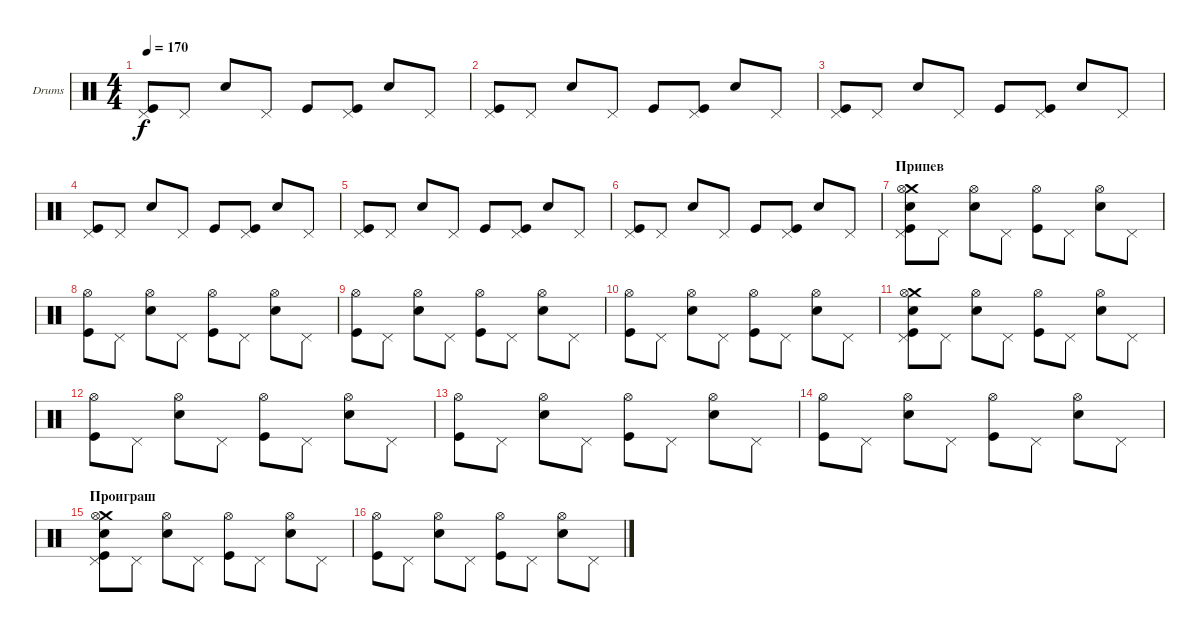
\defaultSystemsLayout 4
\bracketExtendMode groupsimilarinstruments
\firstSystemTrackNameOrientation horizontal
\otherSystemsTrackNameOrientation horizontal
\track ("Е. Кулаков" "Drums") {instrument percussion}
\staff {score}
\articulation defaults
\ts (4 4)
\tempo 170
\clef neutral
\ks c
("Kick (hit)" "Pedal Hi-Hat (hit)").8{dy f} "Pedal Hi-Hat (hit)".8 "Snare (hit) 2".8 "Pedal Hi-Hat (hit)".8 "Kick (hit)".8 ("Kick (hit)" "Pedal Hi-Hat (hit)").8 "Snare (hit) 2".8 "Pedal Hi-Hat (hit)".8 |
("Kick (hit)" "Pedal Hi-Hat (hit)").8 "Pedal Hi-Hat (hit)".8 "Snare (hit) 2".8 "Pedal Hi-Hat (hit)".8 "Kick (hit)".8 ("Kick (hit)" "Pedal Hi-Hat (hit)").8 "Snare (hit) 2".8 "Pedal Hi-Hat (hit)".8 |
("Kick (hit)" "Pedal Hi-Hat (hit)").8 "Pedal Hi-Hat (hit)".8 "Snare (hit) 2".8 "Pedal Hi-Hat (hit)".8 "Kick (hit)".8 ("Kick (hit)" "Pedal Hi-Hat (hit)").8 "Snare (hit) 2".8 "Pedal Hi-Hat (hit)".8 |
("Kick (hit)" "Pedal Hi-Hat (hit)").8 "Pedal Hi-Hat (hit)".8 "Snare (hit) 2".8 "Pedal Hi-Hat (hit)".8 "Kick (hit)".8 ("Kick (hit)" "Pedal Hi-Hat (hit)").8 "Snare (hit) 2".8 "Pedal Hi-Hat (hit)".8 |
("Kick (hit)" "Pedal Hi-Hat (hit)").8 "Pedal Hi-Hat (hit)".8 "Snare (hit) 2".8 "Pedal Hi-Hat (hit)".8 "Kick (hit)".8 ("Kick (hit)" "Pedal Hi-Hat (hit)").8 "Snare (hit) 2".8 "Pedal Hi-Hat (hit)".8 |
("Kick (hit)" "Pedal Hi-Hat (hit)").8 "Pedal Hi-Hat (hit)".8 "Snare (hit) 2".8 "Pedal Hi-Hat (hit)".8 "Kick (hit)".8 ("Kick (hit)" "Pedal Hi-Hat (hit)").8 "Snare (hit) 2".8 "Pedal Hi-Hat (hit)".8 |
\section ("" "Припев")
("Kick (hit)" "Snare (hit) 2" "Crash medium (hit)" "Pedal Hi-Hat (hit)" "Hi-Hat (open)").8 "Pedal Hi-Hat (hit)".8 ("Snare (hit) 2" "Hi-Hat (open)").8 "Pedal Hi-Hat (hit)".8 ("Kick (hit)" "Hi-Hat (open)").8 "Pedal Hi-Hat (hit)".8 ("Snare (hit) 2" "Hi-Hat (open)").8 "Pedal Hi-Hat (hit)".8 |
("Kick (hit)" "Hi-Hat (open)").8 "Pedal Hi-Hat (hit)".8 ("Snare (hit) 2" "Hi-Hat (open)").8 "Pedal Hi-Hat (hit)".8 ("Kick (hit)" "Hi-Hat (open)").8 "Pedal Hi-Hat (hit)".8 ("Snare (hit) 2" "Hi-Hat (open)").8 "Pedal Hi-Hat (hit)".8 |
("Kick (hit)" "Hi-Hat (open)").8 "Pedal Hi-Hat (hit)".8 ("Snare (hit) 2" "Hi-Hat (open)").8 "Pedal Hi-Hat (hit)".8 ("Kick (hit)" "Hi-Hat (open)").8 "Pedal Hi-Hat (hit)".8 ("Snare (hit) 2" "Hi-Hat (open)").8 "Pedal Hi-Hat (hit)".8 |
("Kick (hit)" "Hi-Hat (open)").8 "Pedal Hi-Hat (hit)".8 ("Snare (hit) 2" "Hi-Hat (open)").8 "Pedal Hi-Hat (hit)".8 ("Kick (hit)" "Hi-Hat (open)").8 "Pedal Hi-Hat (hit)".8 ("Snare (hit) 2" "Hi-Hat (open)").8 "Pedal Hi-Hat (hit)".8 |
("Kick (hit)" "Snare (hit) 2" "Crash medium (hit)" "Pedal Hi-Hat (hit)" "Hi-Hat (open)").8 "Pedal Hi-Hat (hit)".8 ("Snare (hit) 2" "Hi-Hat (open)").8 "Pedal Hi-Hat (hit)".8 ("Kick (hit)" "Hi-Hat (open)").8 "Pedal Hi-Hat (hit)".8 ("Snare (hit) 2" "Hi-Hat (open)").8 "Pedal Hi-Hat (hit)".8 |
("Kick (hit)" "Hi-Hat (open)").8 "Pedal Hi-Hat (hit)".8 ("Snare (hit) 2" "Hi-Hat (open)").8 "Pedal Hi-Hat (hit)".8 ("Kick (hit)" "Hi-Hat (open)").8 "Pedal Hi-Hat (hit)".8 ("Snare (hit) 2" "Hi-Hat (open)").8 "Pedal Hi-Hat (hit)".8 |
("Kick (hit)" "Hi-Hat (open)").8 "Pedal Hi-Hat (hit)".8 ("Snare (hit) 2" "Hi-Hat (open)").8 "Pedal Hi-Hat (hit)".8 ("Kick (hit)" "Hi-Hat (open)").8 "Pedal Hi-Hat (hit)".8 ("Snare (hit) 2" "Hi-Hat (open)").8 "Pedal Hi-Hat (hit)".8 |
("Kick (hit)" "Hi-Hat (open)").8 "Pedal Hi-Hat (hit)".8 ("Snare (hit) 2" "Hi-Hat (open)").8 "Pedal Hi-Hat (hit)".8 ("Kick (hit)" "Hi-Hat (open)").8 "Pedal Hi-Hat (hit)".8 ("Snare (hit) 2" "Hi-Hat (open)").8 "Pedal Hi-Hat (hit)".8 |
\section ("" "Проиграш")
("Kick (hit)" "Snare (hit) 2" "Crash medium (hit)" "Pedal Hi-Hat (hit)" "Hi-Hat (open)").8 "Pedal Hi-Hat (hit)".8 ("Snare (hit) 2" "Hi-Hat (open)").8 "Pedal Hi-Hat (hit)".8 ("Kick (hit)" "Hi-Hat (open)").8 "Pedal Hi-Hat (hit)".8 ("Snare (hit) 2" "Hi-Hat (open)").8 "Pedal Hi-Hat (hit)".8 |
("Kick (hit)" "Hi-Hat (open)").8 "Pedal Hi-Hat (hit)".8 ("Snare (hit) 2" "Hi-Hat (open)").8 "Pedal Hi-Hat (hit)".8 ("Kick (hit)" "Hi-Hat (open)").8 "Pedal Hi-Hat (hit)".8 ("Snare (hit) 2" "Hi-Hat (open)").8 "Pedal Hi-Hat (hit)".8
